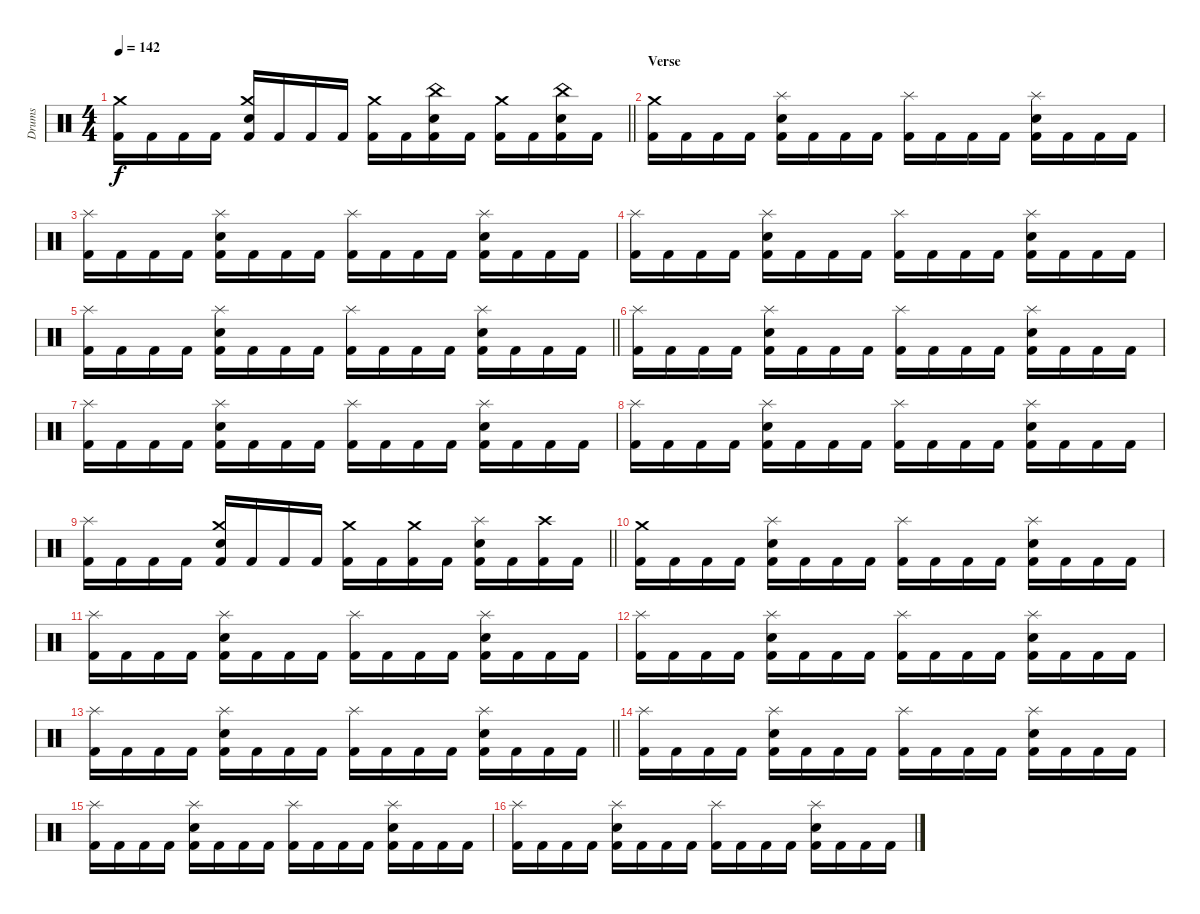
\track ("Drums" "Drums") {instrument percussion}
\staff {score}
\articulation defaults
\ts (4 4)
\tempo 142
\clef neutral
\barLineRight lightlight
\ks c
("Kick (hit) 2" "Crash medium (hit)").16{dy f} "Kick (hit) 2".16 "Kick (hit) 2".16 "Kick (hit) 2".16 ("Kick (hit) 2" "Snare (hit) 2" "Crash medium (hit)").16 "Kick (hit) 2".16 "Kick (hit) 2".16 "Kick (hit) 2".16 ("Kick (hit) 2" "Crash medium (hit)").16 "Kick (hit) 2".16 ("Kick (hit) 2" "Snare (hit) 2" "China (hit)").16 "Kick (hit) 2".16 ("Kick (hit) 2" "Crash medium (hit)").16 "Kick (hit) 2".16 ("Kick (hit) 2" "Snare (hit) 2" "China (hit)").16 "Kick (hit) 2".16 |
\section ("" "Verse")
("Kick (hit) 2" "Crash medium (hit)").16 "Kick (hit) 2".16 "Kick (hit) 2".16 "Kick (hit) 2".16 ("Kick (hit) 2" "Snare (hit) 2" "Splash (hit)").16 "Kick (hit) 2".16 "Kick (hit) 2".16 "Kick (hit) 2".16 ("Kick (hit) 2" "Splash (hit)").16 "Kick (hit) 2".16 "Kick (hit) 2".16 "Kick (hit) 2".16 ("Kick (hit) 2" "Snare (hit) 2" "Splash (hit)").16 "Kick (hit) 2".16 "Kick (hit) 2".16 "Kick (hit) 2".16 |
("Kick (hit) 2" "Splash (hit)").16 "Kick (hit) 2".16 "Kick (hit) 2".16 "Kick (hit) 2".16 ("Kick (hit) 2" "Snare (hit) 2" "Splash (hit)").16 "Kick (hit) 2".16 "Kick (hit) 2".16 "Kick (hit) 2".16 ("Kick (hit) 2" "Splash (hit)").16 "Kick (hit) 2".16 "Kick (hit) 2".16 "Kick (hit) 2".16 ("Kick (hit) 2" "Snare (hit) 2" "Splash (hit)").16 "Kick (hit) 2".16 "Kick (hit) 2".16 "Kick (hit) 2".16 |
("Kick (hit) 2" "Splash (hit)").16 "Kick (hit) 2".16 "Kick (hit) 2".16 "Kick (hit) 2".16 ("Kick (hit) 2" "Snare (hit) 2" "Splash (hit)").16 "Kick (hit) 2".16 "Kick (hit) 2".16 "Kick (hit) 2".16 ("Kick (hit) 2" "Splash (hit)").16 "Kick (hit) 2".16 "Kick (hit) 2".16 "Kick (hit) 2".16 ("Kick (hit) 2" "Snare (hit) 2" "Splash (hit)").16 "Kick (hit) 2".16 "Kick (hit) 2".16 "Kick (hit) 2".16 |
\barLineRight lightlight
("Kick (hit) 2" "Splash (hit)").16 "Kick (hit) 2".16 "Kick (hit) 2".16 "Kick (hit) 2".16 ("Kick (hit) 2" "Snare (hit) 2" "Splash (hit)").16 "Kick (hit) 2".16 "Kick (hit) 2".16 "Kick (hit) 2".16 ("Kick (hit) 2" "Splash (hit)").16 "Kick (hit) 2".16 "Kick (hit) 2".16 "Kick (hit) 2".16 ("Kick (hit) 2" "Snare (hit) 2" "Splash (hit)").16 "Kick (hit) 2".16 "Kick (hit) 2".16 "Kick (hit) 2".16 |
\section ("" "")
("Kick (hit) 2" "Splash (hit)").16 "Kick (hit) 2".16 "Kick (hit) 2".16 "Kick (hit) 2".16 ("Kick (hit) 2" "Snare (hit) 2" "Splash (hit)").16 "Kick (hit) 2".16 "Kick (hit) 2".16 "Kick (hit) 2".16 ("Kick (hit) 2" "Splash (hit)").16 "Kick (hit) 2".16 "Kick (hit) 2".16 "Kick (hit) 2".16 ("Kick (hit) 2" "Snare (hit) 2" "Splash (hit)").16 "Kick (hit) 2".16 "Kick (hit) 2".16 "Kick (hit) 2".16 |
("Kick (hit) 2" "Splash (hit)").16 "Kick (hit) 2".16 "Kick (hit) 2".16 "Kick (hit) 2".16 ("Kick (hit) 2" "Snare (hit) 2" "Splash (hit)").16 "Kick (hit) 2".16 "Kick (hit) 2".16 "Kick (hit) 2".16 ("Kick (hit) 2" "Splash (hit)").16 "Kick (hit) 2".16 "Kick (hit) 2".16 "Kick (hit) 2".16 ("Kick (hit) 2" "Snare (hit) 2" "Splash (hit)").16 "Kick (hit) 2".16 "Kick (hit) 2".16 "Kick (hit) 2".16 |
("Kick (hit) 2" "Splash (hit)").16 "Kick (hit) 2".16 "Kick (hit) 2".16 "Kick (hit) 2".16 ("Kick (hit) 2" "Snare (hit) 2" "Splash (hit)").16 "Kick (hit) 2".16 "Kick (hit) 2".16 "Kick (hit) 2".16 ("Kick (hit) 2" "Splash (hit)").16 "Kick (hit) 2".16 "Kick (hit) 2".16 "Kick (hit) 2".16 ("Kick (hit) 2" "Snare (hit) 2" "Splash (hit)").16 "Kick (hit) 2".16 "Kick (hit) 2".16 "Kick (hit) 2".16 |
\barLineRight lightlight
("Kick (hit) 2" "Splash (hit)").16 "Kick (hit) 2".16 "Kick (hit) 2".16 "Kick (hit) 2".16 ("Kick (hit) 2" "Snare (hit) 2" "Crash medium (hit)").16 "Kick (hit) 2".16 "Kick (hit) 2".16 "Kick (hit) 2".16 ("Kick (hit) 2" "Crash medium (hit)").16 "Kick (hit) 2".16 ("Kick (hit) 2" "Crash medium (hit)").16 "Kick (hit) 2".16 ("Kick (hit) 2" "Snare (hit) 2" "Splash (hit)").16 "Kick (hit) 2".16 ("Kick (hit) 2" "Crash high (hit)").16 "Kick (hit) 2".16 |
\section ("" "")
("Kick (hit) 2" "Crash medium (hit)").16 "Kick (hit) 2".16 "Kick (hit) 2".16 "Kick (hit) 2".16 ("Kick (hit) 2" "Snare (hit) 2" "Splash (hit)").16 "Kick (hit) 2".16 "Kick (hit) 2".16 "Kick (hit) 2".16 ("Kick (hit) 2" "Splash (hit)").16 "Kick (hit) 2".16 "Kick (hit) 2".16 "Kick (hit) 2".16 ("Kick (hit) 2" "Snare (hit) 2" "Splash (hit)").16 "Kick (hit) 2".16 "Kick (hit) 2".16 "Kick (hit) 2".16 |
("Kick (hit) 2" "Splash (hit)").16 "Kick (hit) 2".16 "Kick (hit) 2".16 "Kick (hit) 2".16 ("Kick (hit) 2" "Snare (hit) 2" "Splash (hit)").16 "Kick (hit) 2".16 "Kick (hit) 2".16 "Kick (hit) 2".16 ("Kick (hit) 2" "Splash (hit)").16 "Kick (hit) 2".16 "Kick (hit) 2".16 "Kick (hit) 2".16 ("Kick (hit) 2" "Snare (hit) 2" "Splash (hit)").16 "Kick (hit) 2".16 "Kick (hit) 2".16 "Kick (hit) 2".16 |
("Kick (hit) 2" "Splash (hit)").16 "Kick (hit) 2".16 "Kick (hit) 2".16 "Kick (hit) 2".16 ("Kick (hit) 2" "Snare (hit) 2" "Splash (hit)").16 "Kick (hit) 2".16 "Kick (hit) 2".16 "Kick (hit) 2".16 ("Kick (hit) 2" "Splash (hit)").16 "Kick (hit) 2".16 "Kick (hit) 2".16 "Kick (hit) 2".16 ("Kick (hit) 2" "Snare (hit) 2" "Splash (hit)").16 "Kick (hit) 2".16 "Kick (hit) 2".16 "Kick (hit) 2".16 |
\barLineRight lightlight
("Kick (hit) 2" "Splash (hit)").16 "Kick (hit) 2".16 "Kick (hit) 2".16 "Kick (hit) 2".16 ("Kick (hit) 2" "Snare (hit) 2" "Splash (hit)").16 "Kick (hit) 2".16 "Kick (hit) 2".16 "Kick (hit) 2".16 ("Kick (hit) 2" "Splash (hit)").16 "Kick (hit) 2".16 "Kick (hit) 2".16 "Kick (hit) 2".16 ("Kick (hit) 2" "Snare (hit) 2" "Splash (hit)").16 "Kick (hit) 2".16 "Kick (hit) 2".16 "Kick (hit) 2".16 |
\section ("" "")
("Kick (hit) 2" "Splash (hit)").16 "Kick (hit) 2".16 "Kick (hit) 2".16 "Kick (hit) 2".16 ("Kick (hit) 2" "Snare (hit) 2" "Splash (hit)").16 "Kick (hit) 2".16 "Kick (hit) 2".16 "Kick (hit) 2".16 ("Kick (hit) 2" "Splash (hit)").16 "Kick (hit) 2".16 "Kick (hit) 2".16 "Kick (hit) 2".16 ("Kick (hit) 2" "Snare (hit) 2" "Splash (hit)").16 "Kick (hit) 2".16 "Kick (hit) 2".16 "Kick (hit) 2".16 |
("Kick (hit) 2" "Splash (hit)").16 "Kick (hit) 2".16 "Kick (hit) 2".16 "Kick (hit) 2".16 ("Kick (hit) 2" "Snare (hit) 2" "Splash (hit)").16 "Kick (hit) 2".16 "Kick (hit) 2".16 "Kick (hit) 2".16 ("Kick (hit) 2" "Splash (hit)").16 "Kick (hit) 2".16 "Kick (hit) 2".16 "Kick (hit) 2".16 ("Kick (hit) 2" "Snare (hit) 2" "Splash (hit)").16 "Kick (hit) 2".16 "Kick (hit) 2".16 "Kick (hit) 2".16 |
("Kick (hit) 2" "Splash (hit)").16 "Kick (hit) 2".16 "Kick (hit) 2".16 "Kick (hit) 2".16 ("Kick (hit) 2" "Snare (hit) 2" "Splash (hit)").16 "Kick (hit) 2".16 "Kick (hit) 2".16 "Kick (hit) 2".16 ("Kick (hit) 2" "Splash (hit)").16 "Kick (hit) 2".16 "Kick (hit) 2".16 "Kick (hit) 2".16 ("Kick (hit) 2" "Snare (hit) 2" "Splash (hit)").16 "Kick (hit) 2".16 "Kick (hit) 2".16 "Kick (hit) 2".16
